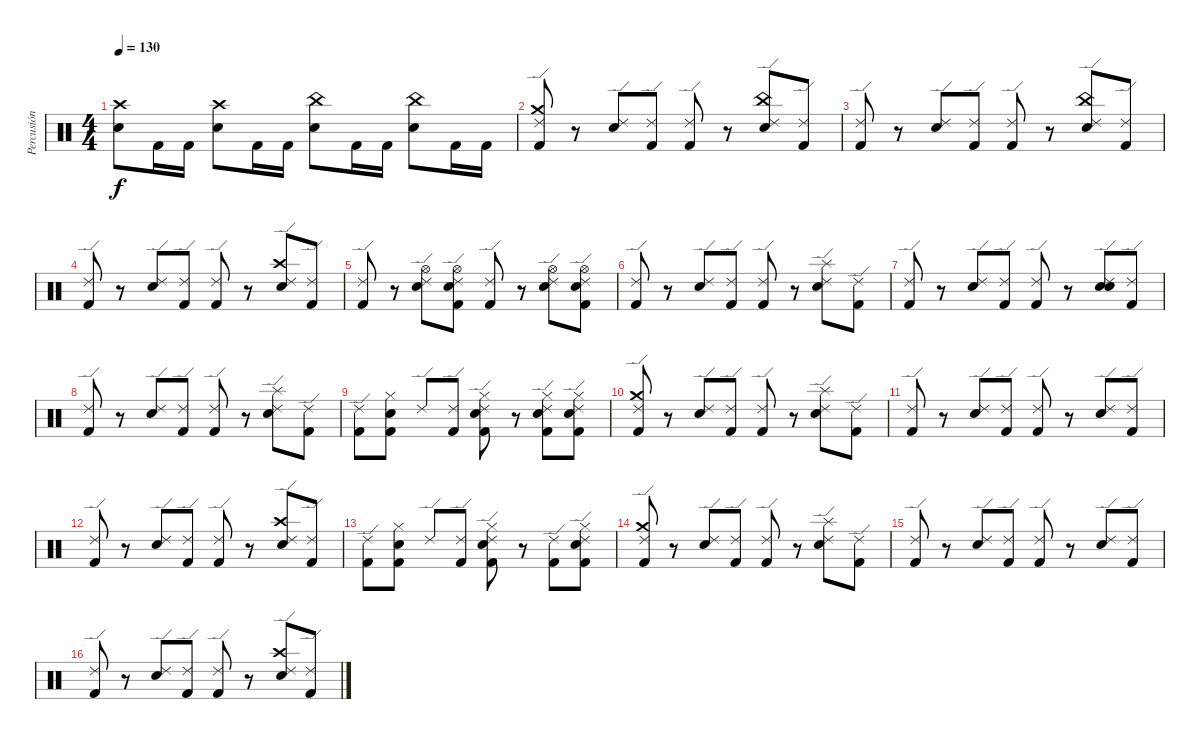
\track ("Percusión" "Percusión") {instrument percussion}
\staff {score}
\articulation defaults
\ts (4 4)
\tempo 130
\clef neutral
\ks c
("Snare (hit) 2" "Crash high (hit)").8{dy f} "Kick (hit) 2".16 "Kick (hit) 2".16 ("Snare (hit) 2" "Crash high (hit)").8 "Kick (hit) 2".16 "Kick (hit) 2".16 ("Snare (hit) 2" "China (hit)").8 "Kick (hit) 2".16 "Kick (hit) 2".16 ("Snare (hit) 2" "China (hit)").8 "Kick (hit) 2".16 "Kick (hit) 2".16 |
("Kick (hit) 2" "Crash medium (hit)" "Ride (edge) 2").8 r.8 ("Snare (hit) 2" "Ride (edge) 2").8 ("Kick (hit) 2" "Ride (edge) 2").8 ("Kick (hit) 2" "Ride (edge) 2").8 r.8 ("Snare (hit) 2" "China (hit)" "Ride (edge) 2").8 ("Kick (hit) 2" "Ride (edge) 2").8 |
("Kick (hit) 2" "Ride (edge) 2").8 r.8 ("Snare (hit) 2" "Ride (edge) 2").8 ("Kick (hit) 2" "Ride (edge) 2").8 ("Kick (hit) 2" "Ride (edge) 2").8 r.8 ("Snare (hit) 2" "China (hit)" "Ride (edge) 2").8 ("Kick (hit) 2" "Ride (edge) 2").8 |
("Kick (hit) 2" "Ride (edge) 2").8 r.8 ("Snare (hit) 2" "Ride (edge) 2").8 ("Kick (hit) 2" "Ride (edge) 2").8 ("Kick (hit) 2" "Ride (edge) 2").8 r.8 ("Snare (hit) 2" "Crash high (hit)" "Ride (edge) 2").8 ("Kick (hit) 2" "Ride (edge) 2").8 |
("Kick (hit) 2" "Ride (edge) 2").8 r.8 ("Electric Snare (hit)" "Hi-Hat (open)" "Ride (edge) 2").8 ("Kick (hit) 2" "Electric Snare (hit)" "Hi-Hat (open)" "Ride (edge) 2").8 ("Kick (hit) 2" "Ride (edge) 2").8 r.8 ("Electric Snare (hit)" "Hi-Hat (open)" "Ride (edge) 2").8 ("Kick (hit) 2" "Electric Snare (hit)" "Hi-Hat (open)" "Ride (edge) 2").8 |
("Kick (hit) 2" "Ride (edge) 2").8 r.8 ("Snare (hit) 2" "Ride (edge) 2").8 ("Kick (hit) 2" "Ride (edge) 2").8 ("Kick (hit) 2" "Ride (edge) 2").8 r.8 ("Snare (hit) 2" "Splash (hit)" "Ride (edge) 2").8 ("Kick (hit) 2" "Ride (edge) 2").8 |
("Kick (hit) 2" "Ride (edge) 2").8 r.8 ("Snare (hit) 2" "Ride (edge) 2").8 ("Kick (hit) 2" "Ride (edge) 2").8 ("Kick (hit) 2" "Ride (edge) 2").8 r.8 ("Snare (hit) 2" "Electric Snare (hit)" "Ride (edge) 2").8 ("Kick (hit) 2" "Ride (edge) 2").8 |
("Kick (hit) 2" "Ride (edge) 2").8 r.8 ("Snare (hit) 2" "Ride (edge) 2").8 ("Kick (hit) 2" "Ride (edge) 2").8 ("Kick (hit) 2" "Ride (edge) 2").8 r.8 ("Snare (hit) 2" "Splash (hit)" "Ride (edge) 2").8 ("Kick (hit) 2" "Ride (edge) 2").8 |
("Kick (hit) 2" "Ride (edge) 2").8 ("Kick (hit) 2" "Snare (hit) 2" "Hi-Hat (closed)").8 "Ride (edge) 2".8 ("Kick (hit) 2" "Ride (edge) 2").8 ("Kick (hit) 2" "Snare (hit) 2" "Hi-Hat (closed)" "Ride (edge) 2").8 r.8 ("Kick (hit) 2" "Snare (hit) 2" "Hi-Hat (closed)" "Ride (edge) 2").8 ("Kick (hit) 2" "Snare (hit) 2" "Hi-Hat (closed)" "Ride (edge) 2").8 |
("Kick (hit) 2" "Crash medium (hit)" "Ride (edge) 2").8 r.8 ("Snare (hit) 2" "Ride (edge) 2").8 ("Kick (hit) 2" "Ride (edge) 2").8 ("Kick (hit) 2" "Ride (edge) 2").8 r.8 ("Snare (hit) 2" "Splash (hit)" "Ride (edge) 2").8 ("Kick (hit) 2" "Ride (edge) 2").8 |
("Kick (hit) 2" "Ride (edge) 2").8 r.8 ("Snare (hit) 2" "Ride (edge) 2").8 ("Kick (hit) 2" "Ride (edge) 2").8 ("Kick (hit) 2" "Ride (edge) 2").8 r.8 ("Snare (hit) 2" "Ride (edge) 2").8 ("Kick (hit) 2" "Ride (edge) 2").8 |
("Kick (hit) 2" "Ride (edge) 2").8 r.8 ("Snare (hit) 2" "Ride (edge) 2").8 ("Kick (hit) 2" "Ride (edge) 2").8 ("Kick (hit) 2" "Ride (edge) 2").8 r.8 ("Snare (hit) 2" "Crash high (hit)" "Ride (edge) 2").8 ("Kick (hit) 2" "Ride (edge) 2").8 |
("Kick (hit) 2" "Ride (edge) 2").8 ("Kick (hit) 2" "Snare (hit) 2" "Hi-Hat (closed)").8 "Ride (edge) 2".8 ("Kick (hit) 2" "Ride (edge) 2").8 ("Kick (hit) 2" "Snare (hit) 2" "Hi-Hat (closed)" "Ride (edge) 2").8 r.8 ("Kick (hit) 2" "Ride (edge) 2").8 ("Kick (hit) 2" "Snare (hit) 2" "Hi-Hat (closed)" "Ride (edge) 2").8 |
("Kick (hit) 2" "Crash medium (hit)" "Ride (edge) 2").8 r.8 ("Snare (hit) 2" "Ride (edge) 2").8 ("Kick (hit) 2" "Ride (edge) 2").8 ("Kick (hit) 2" "Ride (edge) 2").8 r.8 ("Snare (hit) 2" "Splash (hit)" "Ride (edge) 2").8 ("Kick (hit) 2" "Ride (edge) 2").8 |
("Kick (hit) 2" "Ride (edge) 2").8 r.8 ("Snare (hit) 2" "Ride (edge) 2").8 ("Kick (hit) 2" "Ride (edge) 2").8 ("Kick (hit) 2" "Ride (edge) 2").8 r.8 ("Snare (hit) 2" "Ride (edge) 2").8 ("Kick (hit) 2" "Ride (edge) 2").8 |
("Kick (hit) 2" "Ride (edge) 2").8 r.8 ("Snare (hit) 2" "Ride (edge) 2").8 ("Kick (hit) 2" "Ride (edge) 2").8 ("Kick (hit) 2" "Ride (edge) 2").8 r.8 ("Snare (hit) 2" "Crash high (hit)" "Ride (edge) 2").8 ("Kick (hit) 2" "Ride (edge) 2").8
